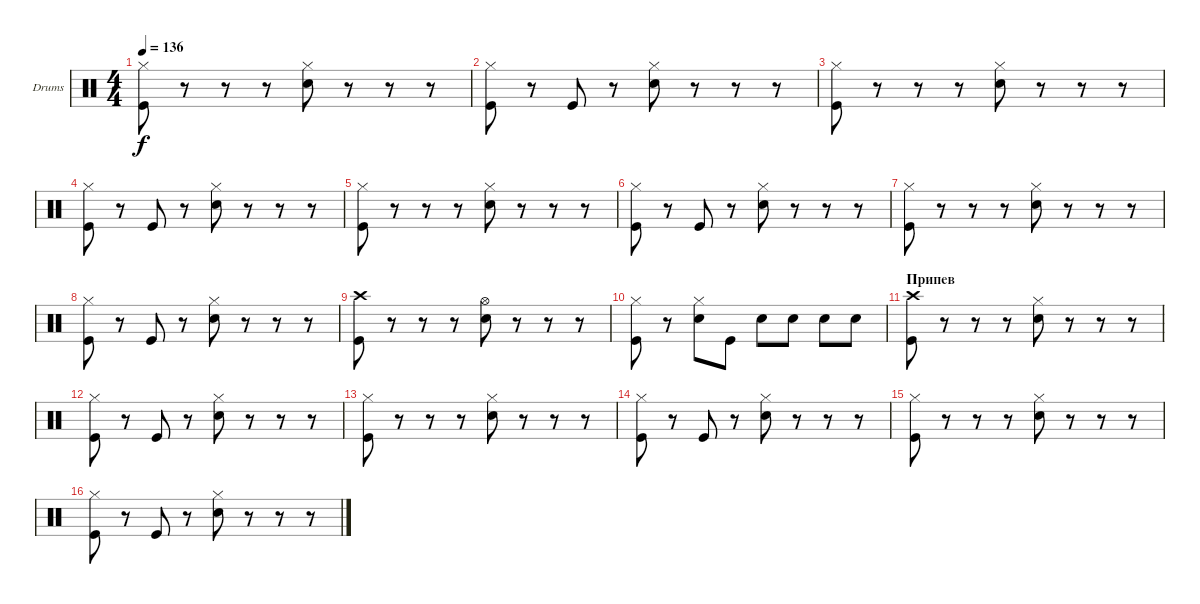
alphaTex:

\defaultSystemsLayout 4
\bracketExtendMode groupsimilarinstruments
\firstSystemTrackNameOrientation horizontal
\otherSystemsTrackNameOrientation horizontal
\track ("Барабаны" "Drums") {instrument percussion}
\staff {score}
\articulation defaults
\ts (4 4)
\tempo 136
\clef neutral
\ks c
("Hi-Hat (closed)" "Kick (hit)").8{dy f} r.8 r.8 r.8 ("Hi-Hat (closed)" "Snare (hit) 2").8 r.8 r.8 r.8 |
("Hi-Hat (closed)" "Kick (hit)").8 r.8 "Kick (hit)".8 r.8 ("Hi-Hat (closed)" "Snare (hit) 2").8 r.8 r.8 r.8 |
("Hi-Hat (closed)" "Kick (hit)").8 r.8 r.8 r.8 ("Hi-Hat (closed)" "Snare (hit) 2").8 r.8 r.8 r.8 |
("Hi-Hat (closed)" "Kick (hit)").8 r.8 "Kick (hit)".8 r.8 ("Hi-Hat (closed)" "Snare (hit) 2").8 r.8 r.8 r.8 |
("Hi-Hat (closed)" "Kick (hit)").8 r.8 r.8 r.8 ("Hi-Hat (closed)" "Snare (hit) 2").8 r.8 r.8 r.8 |
("Hi-Hat (closed)" "Kick (hit)").8 r.8 "Kick (hit)".8 r.8 ("Hi-Hat (closed)" "Snare (hit) 2").8 r.8 r.8 r.8 |
("Hi-Hat (closed)" "Kick (hit)").8 r.8 r.8 r.8 ("Hi-Hat (closed)" "Snare (hit) 2").8 r.8 r.8 r.8 |
("Hi-Hat (closed)" "Kick (hit)").8 r.8 "Kick (hit)".8 r.8 ("Hi-Hat (closed)" "Snare (hit) 2").8 r.8 r.8 r.8 |
("Crash high (hit)" "Kick (hit)").8 r.8 r.8 r.8 ("Hi-Hat (open)" "Snare (hit) 2").8 r.8 r.8 r.8 |
("Hi-Hat (closed)" "Kick (hit)").8 r.8 ("Hi-Hat (closed)" "Snare (hit) 2").8 "Kick (hit)".8 "Snare (hit) 2".8 "Snare (hit) 2".8 "Snare (hit) 2".8 "Snare (hit) 2".8 |
\section ("" "Припев")
("Crash high (hit)" "Kick (hit)").8 r.8 r.8 r.8 ("Hi-Hat (closed)" "Snare (hit) 2").8 r.8 r.8 r.8 |
("Hi-Hat (closed)" "Kick (hit)").8 r.8 "Kick (hit)".8 r.8 ("Hi-Hat (closed)" "Snare (hit) 2").8 r.8 r.8 r.8 |
("Hi-Hat (closed)" "Kick (hit)").8 r.8 r.8 r.8 ("Hi-Hat (closed)" "Snare (hit) 2").8 r.8 r.8 r.8 |
("Hi-Hat (closed)" "Kick (hit)").8 r.8 "Kick (hit)".8 r.8 ("Hi-Hat (closed)" "Snare (hit) 2").8 r.8 r.8 r.8 |
("Hi-Hat (closed)" "Kick (hit)").8 r.8 r.8 r.8 ("Hi-Hat (closed)" "Snare (hit) 2").8 r.8 r.8 r.8 |
("Hi-Hat (closed)" "Kick (hit)").8 r.8 "Kick (hit)".8 r.8 ("Hi-Hat (closed)" "Snare (hit) 2").8 r.8 r.8 r.8
